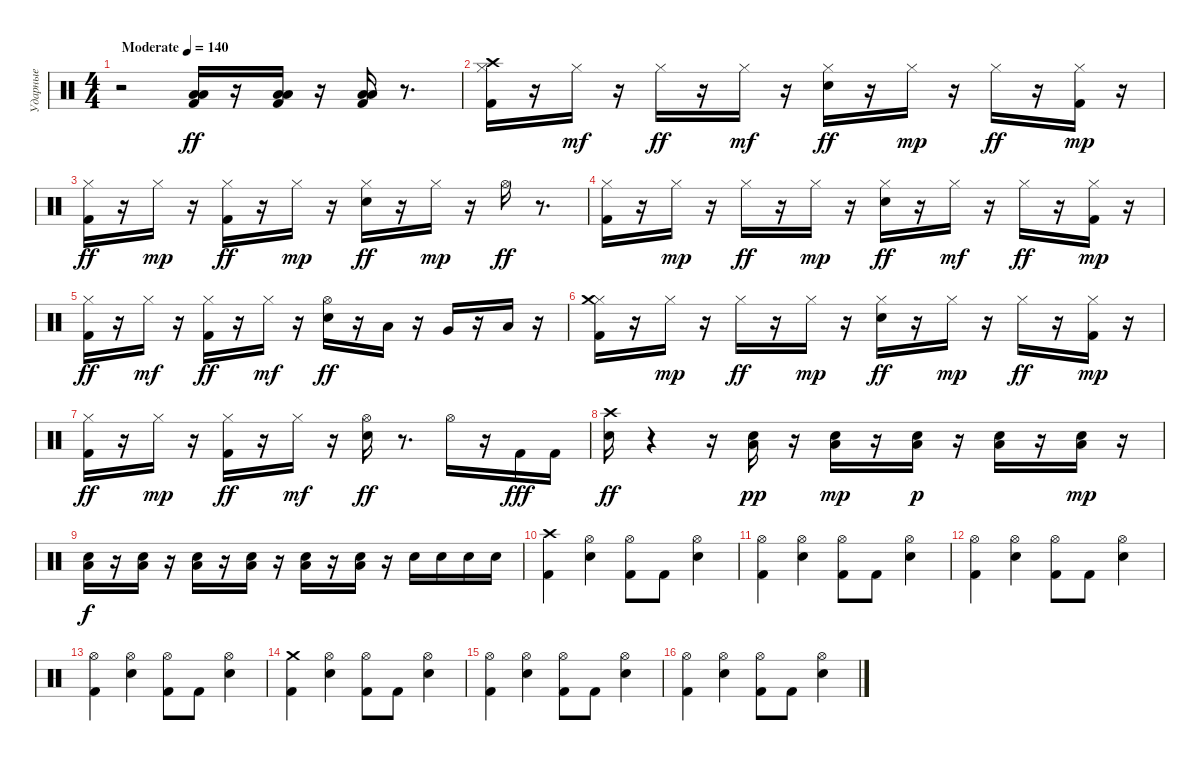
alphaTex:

\track ("Ударные" "Ударные") {instrument percussion}
\staff {score}
\articulation defaults
\ts (4 4)
\tempo (140 "Moderate")
\clef neutral
\ks c
r.2{dy ff} ("Low Floor Tom (hit)" "Kick (hit) 2" "Low Tom (hit)").16 r.16 ("Low Floor Tom (hit)" "Kick (hit) 2" "Low Tom (hit)").16 r.16 ("Low Floor Tom (hit)" "Kick (hit) 2" "Low Tom (hit)").16 r.8{d} |
("Kick (hit) 2" "Hi-Hat (closed)" "Crash high (hit)").16 r.16 "Hi-Hat (closed)".16{dy mf} r.16 "Hi-Hat (closed)".16{dy ff} r.16 "Hi-Hat (closed)".16{dy mf} r.16 ("Snare (hit) 2" "Hi-Hat (closed)").16{dy ff} r.16 "Hi-Hat (closed)".16{dy mp} r.16 "Hi-Hat (closed)".16{dy ff} r.16 ("Kick (hit) 2" "Hi-Hat (closed)").16{dy mp} r.16 |
("Kick (hit) 2" "Hi-Hat (closed)").16{dy ff} r.16 "Hi-Hat (closed)".16{dy mp} r.16 ("Kick (hit) 2" "Hi-Hat (closed)").16{dy ff} r.16 "Hi-Hat (closed)".16{dy mp} r.16 ("Snare (hit) 2" "Hi-Hat (closed)").16{dy ff} r.16 "Hi-Hat (closed)".16{dy mp} r.16 "Hi-Hat (open)".16{dy ff} r.8{d} |
("Kick (hit) 2" "Hi-Hat (closed)").16 r.16 "Hi-Hat (closed)".16{dy mp} r.16 "Hi-Hat (closed)".16{dy ff} r.16 "Hi-Hat (closed)".16{dy mp} r.16 ("Snare (hit) 2" "Hi-Hat (closed)").16{dy ff} r.16 "Hi-Hat (closed)".16{dy mf} r.16 "Hi-Hat (closed)".16{dy ff} r.16 ("Kick (hit) 2" "Hi-Hat (closed)").16{dy mp} r.16 |
("Kick (hit) 2" "Hi-Hat (closed)").16{dy ff} r.16 "Hi-Hat (closed)".16{dy mf} r.16 ("Kick (hit) 2" "Hi-Hat (closed)").16{dy ff} r.16 "Hi-Hat (closed)".16{dy mf} r.16 ("Snare (hit) 2" "Hi-Hat (open)").16{dy ff} r.16 "Low Tom (hit)".16 r.16 "Very Low Tom (hit)".16 r.16 "Low Floor Tom (hit)".16 r.16 |
("Kick (hit) 2" "Hi-Hat (closed)" "Crash medium (hit)").16 r.16 "Hi-Hat (closed)".16{dy mp} r.16 "Hi-Hat (closed)".16{dy ff} r.16 "Hi-Hat (closed)".16{dy mp} r.16 ("Snare (hit) 2" "Hi-Hat (closed)").16{dy ff} r.16 "Hi-Hat (closed)".16{dy mp} r.16 "Hi-Hat (closed)".16{dy ff} r.16 ("Kick (hit) 2" "Hi-Hat (closed)").16{dy mp} r.16 |
("Kick (hit) 2" "Hi-Hat (closed)").16{dy ff} r.16 "Hi-Hat (closed)".16{dy mp} r.16 ("Kick (hit) 2" "Hi-Hat (closed)").16{dy ff} r.16 "Hi-Hat (closed)".16{dy mf} r.16 ("Snare (hit) 2" "Hi-Hat (open)").16{dy ff} r.8{d} "Hi-Hat (open)".16 r.16 "Kick (hit) 2".16{dy fff} "Kick (hit) 2".16 |
("Snare (hit) 2" "Crash high (hit)").16{dy ff} r.4 r.16 ("Snare (hit) 2" "Low Floor Tom (hit)").16{dy pp} r.16 ("Snare (hit) 2" "Low Floor Tom (hit)").16{dy mp} r.16 ("Snare (hit) 2" "Low Floor Tom (hit)").16{dy p} r.16 ("Snare (hit) 2" "Low Floor Tom (hit)").16 r.16 ("Snare (hit) 2" "Low Floor Tom (hit)").16{dy mp} r.16 |
("Snare (hit) 2" "Low Floor Tom (hit)").16{dy f} r.16 ("Snare (hit) 2" "Low Floor Tom (hit)").16 r.16 ("Snare (hit) 2" "Low Floor Tom (hit)").16 r.16 ("Snare (hit) 2" "Low Floor Tom (hit)").16 r.16 ("Snare (hit) 2" "Low Floor Tom (hit)").16 r.16 ("Snare (hit) 2" "Low Floor Tom (hit)").16 r.16 "Snare (hit) 2".16 "Snare (hit) 2".16 "Snare (hit) 2".16 "Snare (hit) 2".16 |
("Kick (hit) 2" "Crash high (hit)").4 ("Snare (hit) 2" "Hi-Hat (open)").4 ("Kick (hit) 2" "Hi-Hat (open)").8 "Kick (hit) 2".8 ("Snare (hit) 2" "Hi-Hat (open)").4 |
("Kick (hit) 2" "Hi-Hat (open)").4 ("Snare (hit) 2" "Hi-Hat (open)").4 ("Kick (hit) 2" "Hi-Hat (open)").8 "Kick (hit) 2".8 ("Snare (hit) 2" "Hi-Hat (open)").4 |
("Kick (hit) 2" "Hi-Hat (open)").4 ("Snare (hit) 2" "Hi-Hat (open)").4 ("Kick (hit) 2" "Hi-Hat (open)").8 "Kick (hit) 2".8 ("Snare (hit) 2" "Hi-Hat (open)").4 |
("Kick (hit) 2" "Hi-Hat (open)").4 ("Snare (hit) 2" "Hi-Hat (open)").4 ("Kick (hit) 2" "Hi-Hat (open)").8 "Kick (hit) 2".8 ("Snare (hit) 2" "Hi-Hat (open)").4 |
("Kick (hit) 2" "Crash medium (hit)").4 ("Snare (hit) 2" "Hi-Hat (open)").4 ("Kick (hit) 2" "Hi-Hat (open)").8 "Kick (hit) 2".8 ("Snare (hit) 2" "Hi-Hat (open)").4 |
("Kick (hit) 2" "Hi-Hat (open)").4 ("Snare (hit) 2" "Hi-Hat (open)").4 ("Kick (hit) 2" "Hi-Hat (open)").8 "Kick (hit) 2".8 ("Snare (hit) 2" "Hi-Hat (open)").4 |
("Kick (hit) 2" "Hi-Hat (open)").4 ("Snare (hit) 2" "Hi-Hat (open)").4 ("Kick (hit) 2" "Hi-Hat (open)").8 "Kick (hit) 2".8 ("Snare (hit) 2" "Hi-Hat (open)").4
